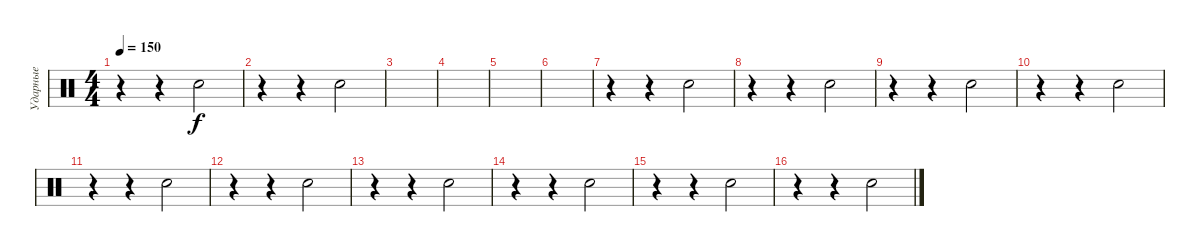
\track ("Ударные" "Ударные") {instrument percussion}
\staff {score}
\articulation defaults
\ts (4 4)
\tempo 150
\clef neutral
\ks c
r.4{dy f} r.4 "Hand Clap (hit)".2 |
r.4 r.4 "Hand Clap (hit)".2 |
|
|
|
|
r.4 r.4 "Hand Clap (hit)".2 |
r.4 r.4 "Hand Clap (hit)".2 |
r.4 r.4 "Hand Clap (hit)".2 |
r.4 r.4 "Hand Clap (hit)".2 |
r.4 r.4 "Hand Clap (hit)".2 |
r.4 r.4 "Hand Clap (hit)".2 |
r.4 r.4 "Hand Clap (hit)".2 |
r.4 r.4 "Hand Clap (hit)".2 |
r.4 r.4 "Hand Clap (hit)".2 |
r.4 r.4 "Hand Clap (hit)".2
